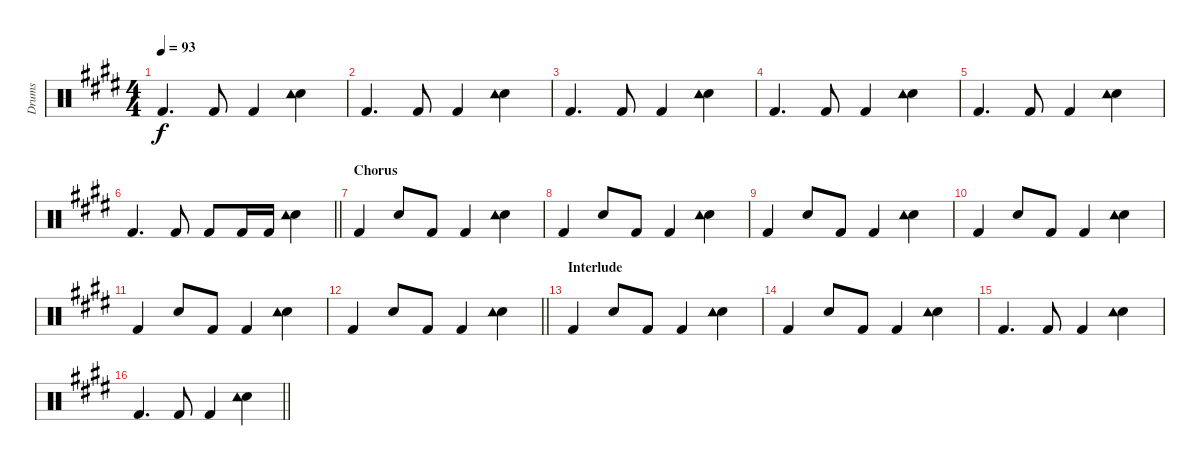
\track ("Drums" "Drums") {instrument percussion}
\staff {score}
\articulation defaults
\ts (4 4)
\tempo 93
\clef neutral
\ks c#minor "Kick (hit) 2".4{d dy f} "Kick (hit) 2".8 "Kick (hit) 2".4
("Electric Snare (hit)" "Tambourine (hit)").4 |
"Kick (hit) 2".4{d} "Kick (hit) 2".8 "Kick (hit) 2".4 ("Electric Snare (hit)" "Tambourine (hit)").4 |
"Kick (hit) 2".4{d} "Kick (hit) 2".8 "Kick (hit) 2".4 ("Electric Snare (hit)" "Tambourine (hit)").4 |
"Kick (hit) 2".4{d} "Kick (hit) 2".8 "Kick (hit) 2".4 ("Electric Snare (hit)" "Tambourine (hit)").4 |
"Kick (hit) 2".4{d} "Kick (hit) 2".8 "Kick (hit) 2".4 ("Electric Snare (hit)" "Tambourine (hit)").4 |
\barLineRight lightlight "Kick (hit) 2".4{d} "Kick (hit) 2".8 "Kick (hit) 2".8 "Kick (hit) 2".16 "Kick (hit) 2".16
("Electric Snare (hit)" "Tambourine (hit)").4 |
\section ("" "Chorus")
"Kick (hit) 2".4 "Hand Clap (hit)".8 "Kick (hit) 2".8 "Kick (hit) 2".4 ("Electric Snare (hit)" "Tambourine (hit)").4 |
"Kick (hit) 2".4 "Hand Clap (hit)".8 "Kick (hit) 2".8 "Kick (hit) 2".4 ("Electric Snare (hit)" "Tambourine (hit)").4 |
"Kick (hit) 2".4 "Hand Clap (hit)".8 "Kick (hit) 2".8 "Kick (hit) 2".4 ("Electric Snare (hit)" "Tambourine (hit)").4 |
"Kick (hit) 2".4 "Hand Clap (hit)".8 "Kick (hit) 2".8 "Kick (hit) 2".4 ("Electric Snare (hit)" "Tambourine (hit)").4 |
"Kick (hit) 2".4 "Hand Clap (hit)".8 "Kick (hit) 2".8 "Kick (hit) 2".4 ("Electric Snare (hit)" "Tambourine (hit)").4 |
\barLineRight lightlight "Kick (hit) 2".4 "Hand Clap (hit)".8 "Kick (hit) 2".8 "Kick (hit) 2".4
("Electric Snare (hit)" "Tambourine (hit)").4 |
\section ("" "Interlude")
"Kick (hit) 2".4 "Hand Clap (hit)".8 "Kick (hit) 2".8 "Kick (hit) 2".4 ("Electric Snare (hit)" "Tambourine (hit)").4 |
"Kick (hit) 2".4 "Hand Clap (hit)".8 "Kick (hit) 2".8 "Kick (hit) 2".4 ("Electric Snare (hit)" "Tambourine (hit)").4 |
"Kick (hit) 2".4{d} "Kick (hit) 2".8 "Kick (hit) 2".4 ("Electric Snare (hit)" "Tambourine (hit)").4 |
\barLineRight lightlight "Kick (hit) 2".4{d} "Kick (hit) 2".8 "Kick (hit) 2".4
("Electric Snare (hit)" "Tambourine (hit)").4
